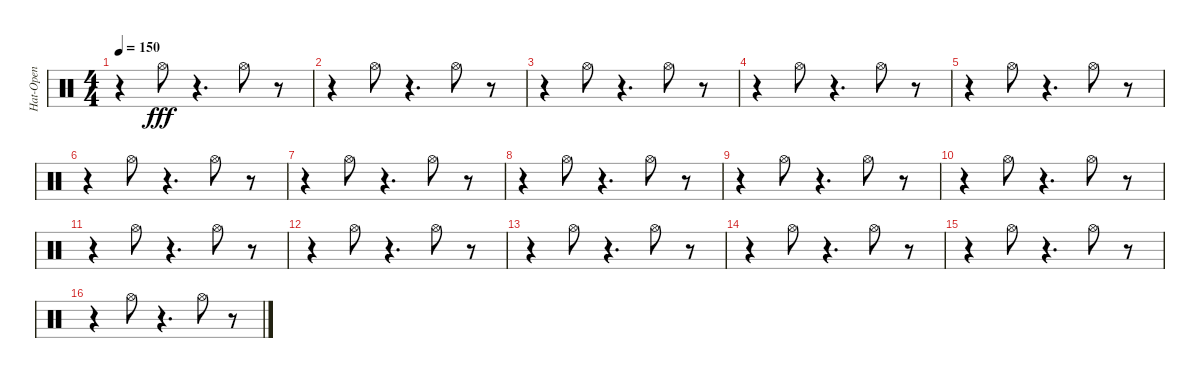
\track ("Hat-Open" "Hat-Open") {instrument percussion}
\staff {score}
\articulation defaults
\ts (4 4)
\tempo 150
\clef neutral
\ks c
r.4{dy fff} "Hi-Hat (open)".8 r.4{d} "Hi-Hat (open)".8 r.8 |
r.4 "Hi-Hat (open)".8 r.4{d} "Hi-Hat (open)".8 r.8 |
r.4 "Hi-Hat (open)".8 r.4{d} "Hi-Hat (open)".8 r.8 |
r.4 "Hi-Hat (open)".8 r.4{d} "Hi-Hat (open)".8 r.8 |
r.4 "Hi-Hat (open)".8 r.4{d} "Hi-Hat (open)".8 r.8 |
r.4 "Hi-Hat (open)".8 r.4{d} "Hi-Hat (open)".8 r.8 |
r.4 "Hi-Hat (open)".8 r.4{d} "Hi-Hat (open)".8 r.8 |
r.4 "Hi-Hat (open)".8 r.4{d} "Hi-Hat (open)".8 r.8 |
r.4 "Hi-Hat (open)".8 r.4{d} "Hi-Hat (open)".8 r.8 |
r.4 "Hi-Hat (open)".8 r.4{d} "Hi-Hat (open)".8 r.8 |
r.4 "Hi-Hat (open)".8 r.4{d} "Hi-Hat (open)".8 r.8 |
r.4 "Hi-Hat (open)".8 r.4{d} "Hi-Hat (open)".8 r.8 |
r.4 "Hi-Hat (open)".8 r.4{d} "Hi-Hat (open)".8 r.8 |
r.4 "Hi-Hat (open)".8 r.4{d} "Hi-Hat (open)".8 r.8 |
r.4 "Hi-Hat (open)".8 r.4{d} "Hi-Hat (open)".8 r.8 |
r.4 "Hi-Hat (open)".8 r.4{d} "Hi-Hat (open)".8 r.8
